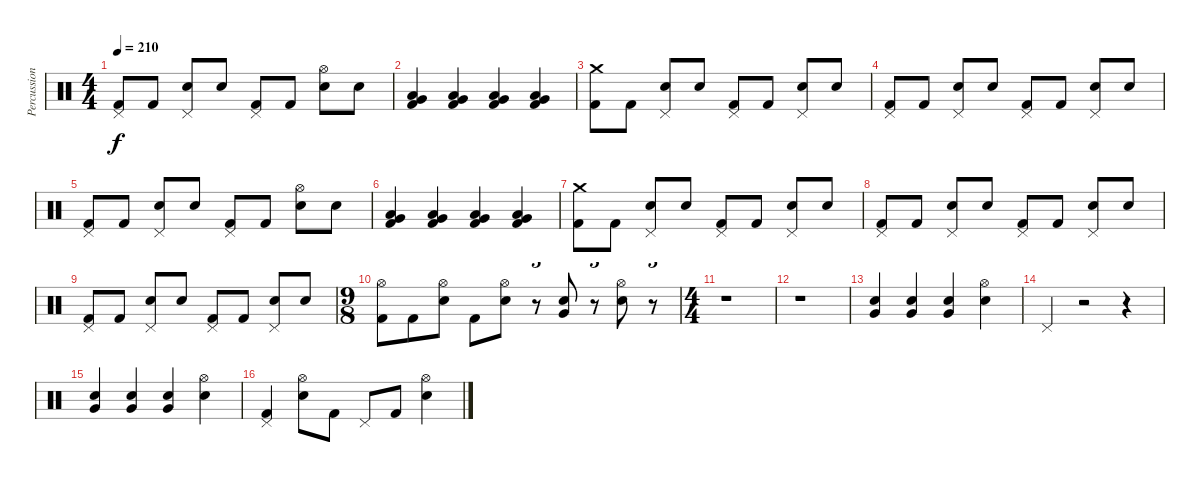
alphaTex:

\track ("Percussion" "Percussion") {instrument percussion}
\staff {score}
\articulation defaults
\ts (4 4)
\tempo 210
\clef neutral
\ks c
("Pedal Hi-Hat (hit)" "Kick (hit) 2").8{dy f} "Kick (hit) 2".8 ("Pedal Hi-Hat (hit)" "Electric Snare (hit)").8 "Electric Snare (hit)".8 ("Pedal Hi-Hat (hit)" "Kick (hit) 2").8 "Kick (hit) 2".8 ("Hi-Hat (open)" "Electric Snare (hit)").8 "Electric Snare (hit)".8 |
("Low Floor Tom (hit)" "Very Low Tom (hit)" "Kick (hit) 2").4 ("Low Floor Tom (hit)" "Very Low Tom (hit)" "Kick (hit) 2").4 ("Low Floor Tom (hit)" "Very Low Tom (hit)" "Kick (hit) 2").4 ("Low Floor Tom (hit)" "Very Low Tom (hit)" "Kick (hit) 2").4 |
("Crash medium (hit)" "Kick (hit) 2").8 "Kick (hit) 2".8 ("Pedal Hi-Hat (hit)" "Electric Snare (hit)").8 "Electric Snare (hit)".8 ("Pedal Hi-Hat (hit)" "Kick (hit) 2").8 "Kick (hit) 2".8 ("Pedal Hi-Hat (hit)" "Electric Snare (hit)").8 "Electric Snare (hit)".8 |
("Pedal Hi-Hat (hit)" "Kick (hit) 2").8 "Kick (hit) 2".8 ("Pedal Hi-Hat (hit)" "Electric Snare (hit)").8 "Electric Snare (hit)".8 ("Pedal Hi-Hat (hit)" "Kick (hit) 2").8 "Kick (hit) 2".8 ("Pedal Hi-Hat (hit)" "Electric Snare (hit)").8 "Electric Snare (hit)".8 |
("Pedal Hi-Hat (hit)" "Kick (hit) 2").8 "Kick (hit) 2".8 ("Pedal Hi-Hat (hit)" "Electric Snare (hit)").8 "Electric Snare (hit)".8 ("Pedal Hi-Hat (hit)" "Kick (hit) 2").8 "Kick (hit) 2".8 ("Hi-Hat (open)" "Electric Snare (hit)").8 "Electric Snare (hit)".8 |
("Low Floor Tom (hit)" "Very Low Tom (hit)" "Kick (hit) 2").4 ("Low Floor Tom (hit)" "Very Low Tom (hit)" "Kick (hit) 2").4 ("Low Floor Tom (hit)" "Very Low Tom (hit)" "Kick (hit) 2").4 ("Low Floor Tom (hit)" "Very Low Tom (hit)" "Kick (hit) 2").4 |
("Crash medium (hit)" "Kick (hit) 2").8 "Kick (hit) 2".8 ("Pedal Hi-Hat (hit)" "Electric Snare (hit)").8 "Electric Snare (hit)".8 ("Pedal Hi-Hat (hit)" "Kick (hit) 2").8 "Kick (hit) 2".8 ("Pedal Hi-Hat (hit)" "Electric Snare (hit)").8 "Electric Snare (hit)".8 |
("Pedal Hi-Hat (hit)" "Kick (hit) 2").8 "Kick (hit) 2".8 ("Pedal Hi-Hat (hit)" "Electric Snare (hit)").8 "Electric Snare (hit)".8 ("Pedal Hi-Hat (hit)" "Kick (hit) 2").8 "Kick (hit) 2".8 ("Pedal Hi-Hat (hit)" "Electric Snare (hit)").8 "Electric Snare (hit)".8 |
("Pedal Hi-Hat (hit)" "Kick (hit) 2").8 "Kick (hit) 2".8 ("Pedal Hi-Hat (hit)" "Electric Snare (hit)").8 "Electric Snare (hit)".8 ("Pedal Hi-Hat (hit)" "Kick (hit) 2").8 "Kick (hit) 2".8 ("Pedal Hi-Hat (hit)" "Electric Snare (hit)").8 "Electric Snare (hit)".8 |
\ts (9 8)
("Hi-Hat (open)" "Kick (hit) 2").8 "Kick (hit) 2".8 ("Hi-Hat (open)" "Electric Snare (hit)").8 "Kick (hit) 2".8 ("Hi-Hat (open)" "Electric Snare (hit)").8 r.8{tu (3 2)} ("Very Low Tom (hit)" "Electric Snare (hit)").8 r.8{tu (3 2)} ("Hi-Hat (open)" "Electric Snare (hit)").8 r.8{tu (3 2)} |
\ts (4 4)
r.1 |
r.1 |
("Very Low Tom (hit)" "Electric Snare (hit)").4 ("Very Low Tom (hit)" "Electric Snare (hit)").4 ("Very Low Tom (hit)" "Electric Snare (hit)").4 ("Hi-Hat (open)" "Electric Snare (hit)").4 |
"Pedal Hi-Hat (hit)".4 r.2 r.4 |
("Very Low Tom (hit)" "Electric Snare (hit)").4 ("Very Low Tom (hit)" "Electric Snare (hit)").4 ("Very Low Tom (hit)" "Electric Snare (hit)").4 ("Hi-Hat (open)" "Electric Snare (hit)").4 |
("Pedal Hi-Hat (hit)" "Kick (hit) 2").4 ("Hi-Hat (open)" "Electric Snare (hit)").8 "Kick (hit) 2".8 "Pedal Hi-Hat (hit)".8 "Kick (hit) 2".8 ("Hi-Hat (open)" "Electric Snare (hit)").4
